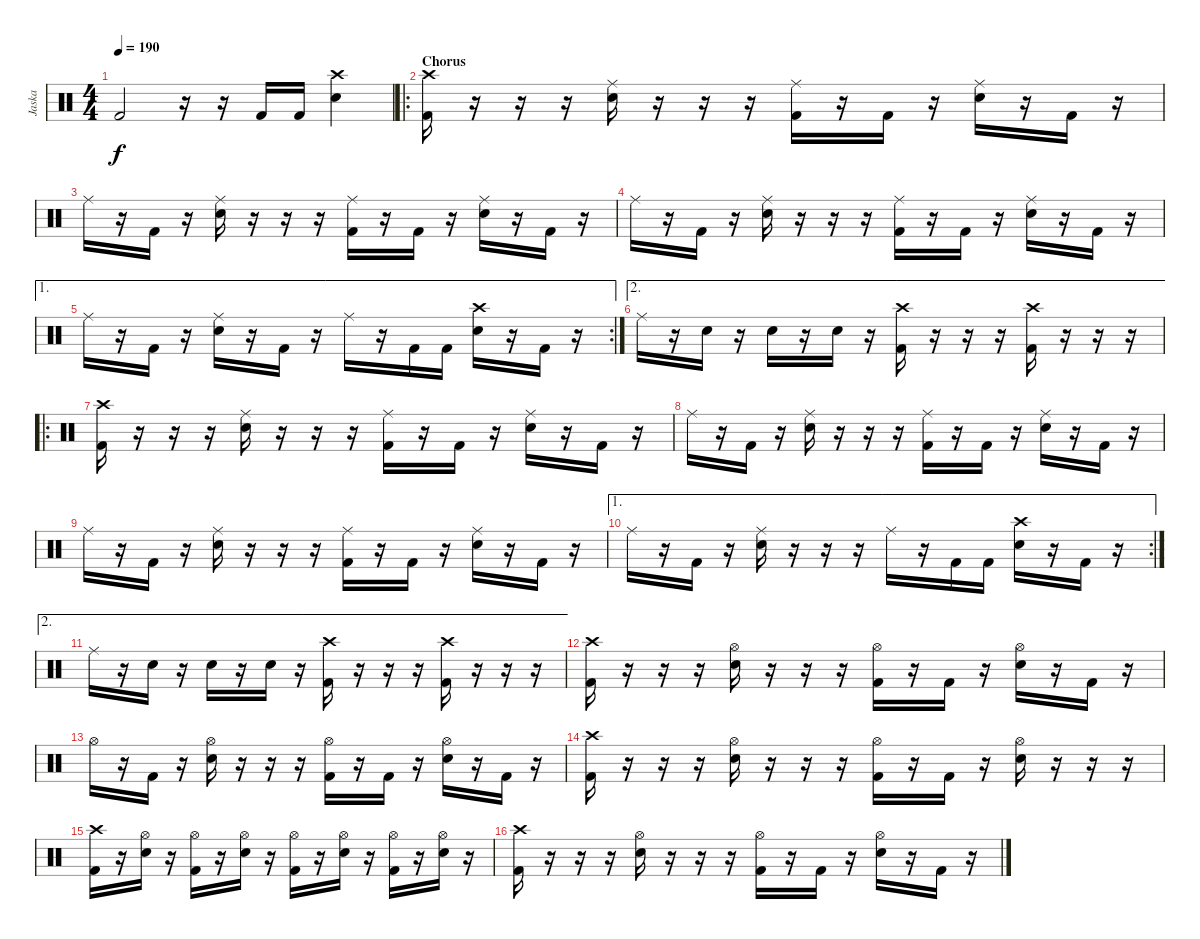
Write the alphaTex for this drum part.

\track ("Jaska" "Jaska") {instrument percussion}
\staff {score}
\articulation defaults
\ts (4 4)
\tempo 190
\clef neutral
\ks c "Kick (hit) 2".2{dy f}
r.16 r.16 "Kick (hit) 2".16 "Kick (hit) 2".16 ("Crash high (hit)" "Electric Snare (hit)").4 |
\ro
\section ("" "Chorus")
("Crash high (hit)" "Kick (hit) 2").16 r.16 r.16 r.16 ("Ride (middle)" "Electric Snare (hit)").16 r.16 r.16 r.16 ("Ride (middle)" "Kick (hit) 2").16 r.16 "Kick (hit) 2".16 r.16 ("Ride (middle)" "Electric Snare (hit)").16 r.16 "Kick (hit) 2".16 r.16 |
"Ride (middle)".16 r.16 "Kick (hit) 2".16 r.16 ("Ride (middle)" "Electric Snare (hit)").16 r.16 r.16 r.16 ("Ride (middle)" "Kick (hit) 2").16 r.16 "Kick (hit) 2".16 r.16 ("Ride (middle)" "Electric Snare (hit)").16 r.16 "Kick (hit) 2".16 r.16 |
"Ride (middle)".16 r.16 "Kick (hit) 2".16 r.16 ("Ride (middle)" "Electric Snare (hit)").16 r.16 r.16 r.16 ("Ride (middle)" "Kick (hit) 2").16 r.16 "Kick (hit) 2".16 r.16 ("Ride (middle)" "Electric Snare (hit)").16 r.16 "Kick (hit) 2".16 r.16 |
\ae 1
\rc 2 "Ride (middle)".16
r.16 "Kick (hit) 2".16 r.16 ("Ride (middle)" "Electric Snare (hit)").16 r.16 "Kick (hit) 2".16 r.16 "Ride (middle)".16 r.16 "Kick (hit) 2".16 "Kick (hit) 2".16 ("Crash high (hit)" "Electric Snare (hit)").16 r.16 "Kick (hit) 2".16 r.16 |
\ae 2 "Ride (middle)".16
r.16 "Electric Snare (hit)".16 r.16 "Electric Snare (hit)".16 r.16 "Electric Snare (hit)".16 r.16 ("Crash high (hit)" "Kick (hit) 2").16 r.16 r.16 r.16 ("Crash high (hit)" "Kick (hit) 2").16 r.16 r.16 r.16 |
\ro
("Crash high (hit)" "Kick (hit) 2").16 r.16 r.16 r.16 ("Ride (middle)" "Electric Snare (hit)").16 r.16 r.16 r.16 ("Ride (middle)" "Kick (hit) 2").16 r.16 "Kick (hit) 2".16 r.16 ("Ride (middle)" "Electric Snare (hit)").16 r.16 "Kick (hit) 2".16 r.16 |
"Ride (middle)".16 r.16 "Kick (hit) 2".16 r.16 ("Ride (middle)" "Electric Snare (hit)").16 r.16 r.16 r.16 ("Ride (middle)" "Kick (hit) 2").16 r.16 "Kick (hit) 2".16 r.16 ("Ride (middle)" "Electric Snare (hit)").16 r.16 "Kick (hit) 2".16 r.16 |
"Ride (middle)".16 r.16 "Kick (hit) 2".16 r.16 ("Ride (middle)" "Electric Snare (hit)").16 r.16 r.16 r.16 ("Ride (middle)" "Kick (hit) 2").16 r.16 "Kick (hit) 2".16 r.16 ("Ride (middle)" "Electric Snare (hit)").16 r.16 "Kick (hit) 2".16 r.16 |
\ae 1
\rc 2 "Ride (middle)".16
r.16 "Kick (hit) 2".16 r.16 ("Ride (middle)" "Electric Snare (hit)").16 r.16 r.16 r.16 "Ride (middle)".16 r.16 "Kick (hit) 2".16 "Kick (hit) 2".16 ("Crash high (hit)" "Electric Snare (hit)").16 r.16 "Kick (hit) 2".16 r.16 |
\ae 2 "Ride (middle)".16
r.16 "Electric Snare (hit)".16 r.16 "Electric Snare (hit)".16 r.16 "Electric Snare (hit)".16 r.16 ("Crash high (hit)" "Kick (hit) 2").16 r.16 r.16 r.16 ("Crash high (hit)" "Kick (hit) 2").16 r.16 r.16 r.16 |
("Crash high (hit)" "Kick (hit) 2").16 r.16 r.16 r.16 ("Hi-Hat (open)" "Electric Snare (hit)").16 r.16 r.16 r.16 ("Hi-Hat (open)" "Kick (hit) 2").16 r.16 "Kick (hit) 2".16 r.16 ("Hi-Hat (open)" "Electric Snare (hit)").16 r.16 "Kick (hit) 2".16 r.16 |
"Hi-Hat (open)".16 r.16 "Kick (hit) 2".16 r.16 ("Hi-Hat (open)" "Electric Snare (hit)").16 r.16 r.16 r.16 ("Hi-Hat (open)" "Kick (hit) 2").16 r.16 "Kick (hit) 2".16 r.16 ("Hi-Hat (open)" "Electric Snare (hit)").16 r.16 "Kick (hit) 2".16 r.16 |
("Crash high (hit)" "Kick (hit) 2").16 r.16 r.16 r.16 ("Hi-Hat (open)" "Electric Snare (hit)").16 r.16 r.16 r.16 ("Hi-Hat (open)" "Kick (hit) 2").16 r.16 "Kick (hit) 2".16 r.16 ("Hi-Hat (open)" "Electric Snare (hit)").16 r.16 r.16 r.16 |
("Crash high (hit)" "Kick (hit) 2").16 r.16 ("Hi-Hat (open)" "Electric Snare (hit)").16 r.16 ("Hi-Hat (open)" "Kick (hit) 2").16 r.16 ("Hi-Hat (open)" "Electric Snare (hit)").16 r.16 ("Hi-Hat (open)" "Kick (hit) 2").16 r.16 ("Hi-Hat (open)" "Electric Snare (hit)").16 r.16 ("Hi-Hat (open)" "Kick (hit) 2").16 r.16 ("Hi-Hat (open)" "Electric Snare (hit)").16 r.16 |
("Crash high (hit)" "Kick (hit) 2").16 r.16 r.16 r.16 ("Hi-Hat (open)" "Electric Snare (hit)").16 r.16 r.16 r.16 ("Hi-Hat (open)" "Kick (hit) 2").16 r.16 "Kick (hit) 2".16 r.16 ("Hi-Hat (open)" "Electric Snare (hit)").16 r.16 "Kick (hit) 2".16 r.16
